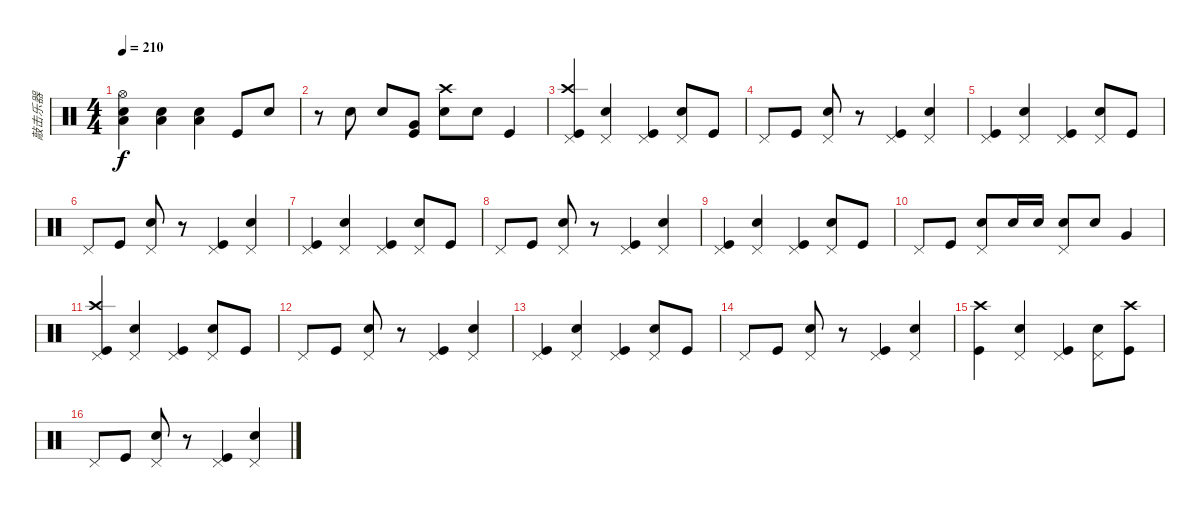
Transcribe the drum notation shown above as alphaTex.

\track ("敲击乐器" "敲击乐器") {instrument percussion}
\staff {score}
\articulation defaults
\ts (4 4)
\tempo 210
\clef neutral
\ks c
("Hi-Hat (open)" "Snare (hit) 2" "Low Floor Tom (hit)").4{dy f} ("Snare (hit) 2" "Low Floor Tom (hit)").4 ("Snare (hit) 2" "Low Floor Tom (hit)").4 "Kick (hit)".8 "Snare (hit) 2".8 |
r.8 "Snare (hit) 2".8 "Snare (hit) 2".8 ("Kick (hit)" "Very Low Tom (hit)").8 ("Crash high (hit)" "Snare (hit) 2").8 "Snare (hit) 2".8 "Kick (hit)".4 |
("Crash high (hit)" "Pedal Hi-Hat (hit)" "Kick (hit)").4 ("Pedal Hi-Hat (hit)" "Snare (hit) 2").4 ("Pedal Hi-Hat (hit)" "Kick (hit)").4 ("Pedal Hi-Hat (hit)" "Snare (hit) 2").8 "Kick (hit)".8 |
"Pedal Hi-Hat (hit)".8 "Kick (hit)".8 ("Pedal Hi-Hat (hit)" "Snare (hit) 2").8 r.8 ("Kick (hit)" "Pedal Hi-Hat (hit)").4 ("Snare (hit) 2" "Pedal Hi-Hat (hit)").4 |
("Pedal Hi-Hat (hit)" "Kick (hit)").4 ("Pedal Hi-Hat (hit)" "Snare (hit) 2").4 ("Pedal Hi-Hat (hit)" "Kick (hit)").4 ("Pedal Hi-Hat (hit)" "Snare (hit) 2").8 "Kick (hit)".8 |
"Pedal Hi-Hat (hit)".8 "Kick (hit)".8 ("Pedal Hi-Hat (hit)" "Snare (hit) 2").8 r.8 ("Kick (hit)" "Pedal Hi-Hat (hit)").4 ("Snare (hit) 2" "Pedal Hi-Hat (hit)").4 |
("Pedal Hi-Hat (hit)" "Kick (hit)").4 ("Pedal Hi-Hat (hit)" "Snare (hit) 2").4 ("Pedal Hi-Hat (hit)" "Kick (hit)").4 ("Pedal Hi-Hat (hit)" "Snare (hit) 2").8 "Kick (hit)".8 |
"Pedal Hi-Hat (hit)".8 "Kick (hit)".8 ("Pedal Hi-Hat (hit)" "Snare (hit) 2").8 r.8 ("Kick (hit)" "Pedal Hi-Hat (hit)").4 ("Snare (hit) 2" "Pedal Hi-Hat (hit)").4 |
("Pedal Hi-Hat (hit)" "Kick (hit)").4 ("Pedal Hi-Hat (hit)" "Snare (hit) 2").4 ("Pedal Hi-Hat (hit)" "Kick (hit)").4 ("Pedal Hi-Hat (hit)" "Snare (hit) 2").8 "Kick (hit)".8 |
"Pedal Hi-Hat (hit)".8 "Kick (hit)".8 ("Pedal Hi-Hat (hit)" "Snare (hit) 2").8 "Snare (hit) 2".16 "Snare (hit) 2".16 ("Pedal Hi-Hat (hit)" "Snare (hit) 2").8 "Snare (hit) 2".8 "Very Low Tom (hit)".4 |
("Crash high (hit)" "Pedal Hi-Hat (hit)" "Kick (hit)").4 ("Pedal Hi-Hat (hit)" "Snare (hit) 2").4 ("Pedal Hi-Hat (hit)" "Kick (hit)").4 ("Pedal Hi-Hat (hit)" "Snare (hit) 2").8 "Kick (hit)".8 |
"Pedal Hi-Hat (hit)".8 "Kick (hit)".8 ("Pedal Hi-Hat (hit)" "Snare (hit) 2").8 r.8 ("Kick (hit)" "Pedal Hi-Hat (hit)").4 ("Snare (hit) 2" "Pedal Hi-Hat (hit)").4 |
("Pedal Hi-Hat (hit)" "Kick (hit)").4 ("Pedal Hi-Hat (hit)" "Snare (hit) 2").4 ("Pedal Hi-Hat (hit)" "Kick (hit)").4 ("Pedal Hi-Hat (hit)" "Snare (hit) 2").8 "Kick (hit)".8 |
"Pedal Hi-Hat (hit)".8 "Kick (hit)".8 ("Pedal Hi-Hat (hit)" "Snare (hit) 2").8 r.8 ("Kick (hit)" "Pedal Hi-Hat (hit)").4 ("Snare (hit) 2" "Pedal Hi-Hat (hit)").4 |
("Crash high (hit)" "Kick (hit)").4 ("Pedal Hi-Hat (hit)" "Snare (hit) 2").4 ("Pedal Hi-Hat (hit)" "Kick (hit)").4 ("Pedal Hi-Hat (hit)" "Snare (hit) 2").8 ("Crash high (hit)" "Kick (hit)").8 |
"Pedal Hi-Hat (hit)".8 "Kick (hit)".8 ("Pedal Hi-Hat (hit)" "Snare (hit) 2").8 r.8 ("Kick (hit)" "Pedal Hi-Hat (hit)").4 ("Snare (hit) 2" "Pedal Hi-Hat (hit)").4
